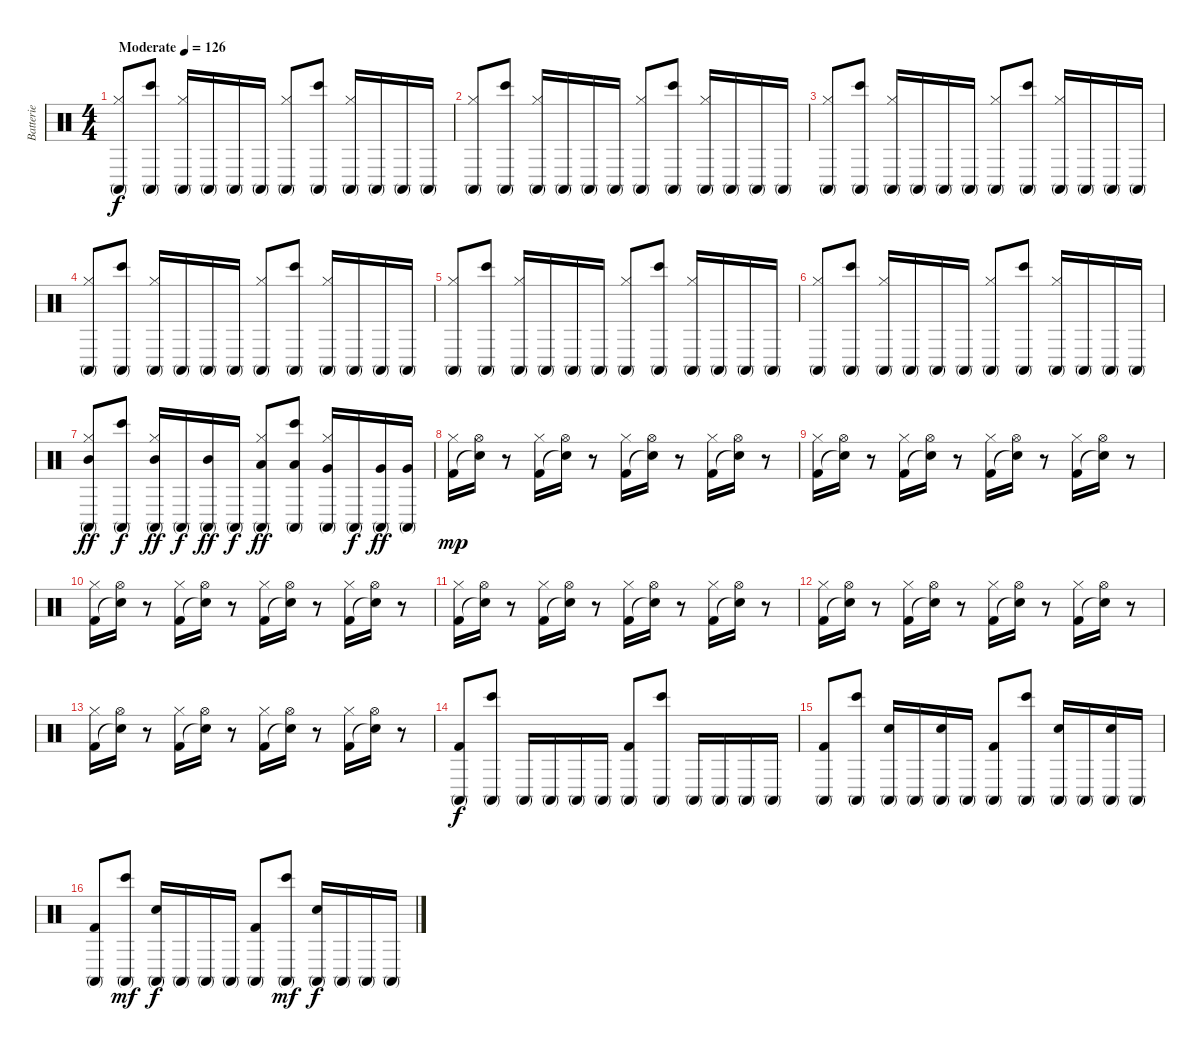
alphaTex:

\track ("Batterie" "Batterie") {instrument percussion}
\staff {score}
\articulation defaults
\ts (4 4)
\tempo (126 "Moderate")
\clef neutral
\ks c
("Conga high (mute)" "Hi-Hat (closed)").8{dy f} ("Conga high (mute)" "Bongo High (hit)").8 ("Conga high (mute)" "Hi-Hat (closed)").16 "Conga high (mute)".16 "Conga high (mute)".16 "Conga high (mute)".16 ("Conga high (mute)" "Hi-Hat (closed)").8 ("Conga high (mute)" "Bongo High (hit)").8 ("Conga high (mute)" "Hi-Hat (closed)").16 "Conga high (mute)".16 "Conga high (mute)".16 "Conga high (mute)".16 |
("Conga high (mute)" "Hi-Hat (closed)").8 ("Conga high (mute)" "Bongo High (hit)").8 ("Conga high (mute)" "Hi-Hat (closed)").16 "Conga high (mute)".16 "Conga high (mute)".16 "Conga high (mute)".16 ("Conga high (mute)" "Hi-Hat (closed)").8 ("Conga high (mute)" "Bongo High (hit)").8 ("Conga high (mute)" "Hi-Hat (closed)").16 "Conga high (mute)".16 "Conga high (mute)".16 "Conga high (mute)".16 |
("Conga high (mute)" "Hi-Hat (closed)").8 ("Conga high (mute)" "Bongo High (hit)").8 ("Conga high (mute)" "Hi-Hat (closed)").16 "Conga high (mute)".16 "Conga high (mute)".16 "Conga high (mute)".16 ("Conga high (mute)" "Hi-Hat (closed)").8 ("Conga high (mute)" "Bongo High (hit)").8 ("Conga high (mute)" "Hi-Hat (closed)").16 "Conga high (mute)".16 "Conga high (mute)".16 "Conga high (mute)".16 |
("Conga high (mute)" "Hi-Hat (closed)").8 ("Conga high (mute)" "Bongo High (hit)").8 ("Conga high (mute)" "Hi-Hat (closed)").16 "Conga high (mute)".16 "Conga high (mute)".16 "Conga high (mute)".16 ("Conga high (mute)" "Hi-Hat (closed)").8 ("Conga high (mute)" "Bongo High (hit)").8 ("Conga high (mute)" "Hi-Hat (closed)").16 "Conga high (mute)".16 "Conga high (mute)".16 "Conga high (mute)".16 |
("Conga high (mute)" "Hi-Hat (closed)").8 ("Conga high (mute)" "Bongo High (hit)").8 ("Conga high (mute)" "Hi-Hat (closed)").16 "Conga high (mute)".16 "Conga high (mute)".16 "Conga high (mute)".16 ("Conga high (mute)" "Hi-Hat (closed)").8 ("Conga high (mute)" "Bongo High (hit)").8 ("Conga high (mute)" "Hi-Hat (closed)").16 "Conga high (mute)".16 "Conga high (mute)".16 "Conga high (mute)".16 |
("Conga high (mute)" "Hi-Hat (closed)").8 ("Conga high (mute)" "Bongo High (hit)").8 ("Conga high (mute)" "Hi-Hat (closed)").16 "Conga high (mute)".16 "Conga high (mute)".16 "Conga high (mute)".16 ("Conga high (mute)" "Hi-Hat (closed)").8 ("Conga high (mute)" "Bongo High (hit)").8 ("Conga high (mute)" "Hi-Hat (closed)").16 "Conga high (mute)".16 "Conga high (mute)".16 "Conga high (mute)".16 |
("Mid Tom (hit)" "Conga high (mute)" "Hi-Hat (closed)").8{dy ff} ("Conga high (mute)" "Bongo High (hit)").8{dy f} ("Mid Tom (hit)" "Conga high (mute)" "Hi-Hat (closed)").16{dy ff} "Conga high (mute)".16{dy f} ("Mid Tom (hit)" "Conga high (mute)").16{dy ff} "Conga high (mute)".16{dy f} ("Low Tom (hit)" "Conga high (mute)" "Hi-Hat (closed)").8{dy ff} ("Low Tom (hit)" "Conga high (mute)" "Bongo High (hit)").8 ("Very Low Tom (hit)" "Conga high (mute)" "Hi-Hat (closed)").16 "Conga high (mute)".16{dy f} ("Very Low Tom (hit)" "Conga high (mute)").16{dy ff} ("Very Low Tom (hit)" "Conga high (mute)").16 |
("Kick (hit) 2" "Hi-Hat (closed)").16{dy mp} ("Snare (hit)"{t} "Hi-Hat (open)").16 r.8 ("Kick (hit) 2" "Hi-Hat (closed)").16 ("Snare (hit)"{t} "Hi-Hat (open)").16 r.8 ("Kick (hit) 2" "Hi-Hat (closed)").16 ("Snare (hit)"{t} "Hi-Hat (open)").16 r.8 ("Kick (hit) 2" "Hi-Hat (closed)").16 ("Snare (hit)"{t} "Hi-Hat (open)").16 r.8 |
("Kick (hit) 2" "Hi-Hat (closed)").16 ("Snare (hit)"{t} "Hi-Hat (open)").16 r.8 ("Kick (hit) 2" "Hi-Hat (closed)").16 ("Snare (hit)"{t} "Hi-Hat (open)").16 r.8 ("Kick (hit) 2" "Hi-Hat (closed)").16 ("Snare (hit)"{t} "Hi-Hat (open)").16 r.8 ("Kick (hit) 2" "Hi-Hat (closed)").16 ("Snare (hit)"{t} "Hi-Hat (open)").16 r.8 |
("Kick (hit) 2" "Hi-Hat (closed)").16 ("Snare (hit)"{t} "Hi-Hat (open)").16 r.8 ("Kick (hit) 2" "Hi-Hat (closed)").16 ("Snare (hit)"{t} "Hi-Hat (open)").16 r.8 ("Kick (hit) 2" "Hi-Hat (closed)").16 ("Snare (hit)"{t} "Hi-Hat (open)").16 r.8 ("Kick (hit) 2" "Hi-Hat (closed)").16 ("Snare (hit)"{t} "Hi-Hat (open)").16 r.8 |
("Kick (hit) 2" "Hi-Hat (closed)").16 ("Snare (hit)"{t} "Hi-Hat (open)").16 r.8 ("Kick (hit) 2" "Hi-Hat (closed)").16 ("Snare (hit)"{t} "Hi-Hat (open)").16 r.8 ("Kick (hit) 2" "Hi-Hat (closed)").16 ("Snare (hit)"{t} "Hi-Hat (open)").16 r.8 ("Kick (hit) 2" "Hi-Hat (closed)").16 ("Snare (hit)"{t} "Hi-Hat (open)").16 r.8 |
("Kick (hit) 2" "Hi-Hat (closed)").16 ("Snare (hit)"{t} "Hi-Hat (open)").16 r.8 ("Kick (hit) 2" "Hi-Hat (closed)").16 ("Snare (hit)"{t} "Hi-Hat (open)").16 r.8 ("Kick (hit) 2" "Hi-Hat (closed)").16 ("Snare (hit)"{t} "Hi-Hat (open)").16 r.8 ("Kick (hit) 2" "Hi-Hat (closed)").16 ("Snare (hit)"{t} "Hi-Hat (open)").16 r.8 |
("Kick (hit) 2" "Hi-Hat (closed)").16 ("Snare (hit)"{t} "Hi-Hat (open)").16 r.8 ("Kick (hit) 2" "Hi-Hat (closed)").16 ("Snare (hit)"{t} "Hi-Hat (open)").16 r.8 ("Kick (hit) 2" "Hi-Hat (closed)").16 ("Snare (hit)"{t} "Hi-Hat (open)").16 r.8 ("Kick (hit) 2" "Hi-Hat (closed)").16 ("Snare (hit)"{t} "Hi-Hat (open)").16 r.8 |
("Conga high (mute)" "Kick (hit) 2").8{dy f} ("Conga high (mute)" "Bongo High (hit)").8 "Conga high (mute)".16 "Conga high (mute)".16 "Conga high (mute)".16 "Conga high (mute)".16 ("Conga high (mute)" "Kick (hit) 2").8 ("Conga high (mute)" "Bongo High (hit)").8 "Conga high (mute)".16 "Conga high (mute)".16 "Conga high (mute)".16 "Conga high (mute)".16 |
("Conga high (mute)" "Kick (hit) 2").8 ("Conga high (mute)" "Bongo High (hit)").8 ("Snare (hit) 2" "Conga high (mute)").16 "Conga high (mute)".16 ("Snare (hit) 2" "Conga high (mute)").16 "Conga high (mute)".16 ("Conga high (mute)" "Kick (hit) 2").8 ("Conga high (mute)" "Bongo High (hit)").8 ("Snare (hit) 2" "Conga high (mute)").16 "Conga high (mute)".16 ("Snare (hit) 2" "Conga high (mute)").16 "Conga high (mute)".16 |
("Conga high (mute)" "Kick (hit) 2").8 ("Conga high (mute)" "Bongo High (hit)").8{dy mf} ("Snare (hit) 2" "Conga high (mute)").16{dy f} "Conga high (mute)".16 "Conga high (mute)".16 "Conga high (mute)".16 ("Conga high (mute)" "Kick (hit) 2").8 ("Conga high (mute)" "Bongo High (hit)").8{dy mf} ("Snare (hit) 2" "Conga high (mute)").16{dy f} "Conga high (mute)".16 "Conga high (mute)".16 "Conga high (mute)".16
